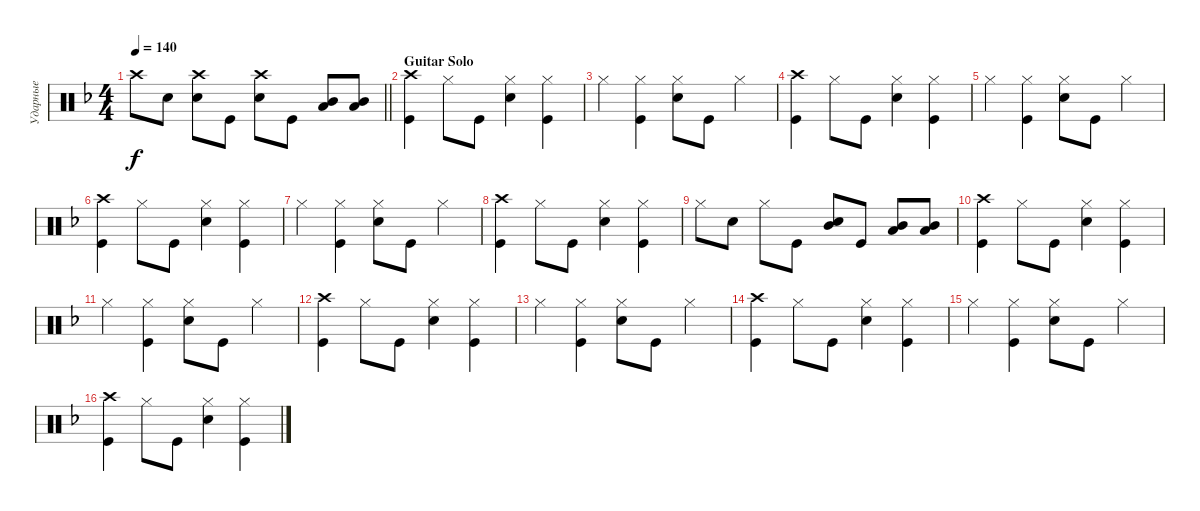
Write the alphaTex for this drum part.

\track ("Ударные" "Ударные") {instrument percussion}
\staff {score}
\articulation defaults
\ts (4 4)
\tempo 140
\clef neutral
\barLineRight lightlight
\ks dminor "Crash high (hit)".8{dy f} "Snare (hit) 2".8{bd 60}
("Crash high (hit)" "Snare (hit) 2").8 "Kick (hit)".8 ("Snare (hit) 2" "Crash high (hit)").8 "Kick (hit)".8 ("Mid Tom (hit)" "Low Tom (hit)").8{bd 60} ("Low Tom (hit)" "Mid Tom (hit)").8{bd 60} |
\section ("" "Guitar Solo")
("Kick (hit)" "Crash high (hit)").4 "Hi-Hat (closed)".8 "Kick (hit)".8 ("Snare (hit) 2" "Hi-Hat (closed)").4 ("Kick (hit)" "Hi-Hat (closed)").4 |
"Hi-Hat (closed)".4 ("Kick (hit)" "Hi-Hat (closed)").4 ("Snare (hit) 2" "Hi-Hat (closed)").8 "Kick (hit)".8 "Hi-Hat (closed)".4 |
("Kick (hit)" "Crash high (hit)").4 "Hi-Hat (closed)".8 "Kick (hit)".8 ("Snare (hit) 2" "Hi-Hat (closed)").4 ("Kick (hit)" "Hi-Hat (closed)").4 |
"Hi-Hat (closed)".4 ("Kick (hit)" "Hi-Hat (closed)").4 ("Snare (hit) 2" "Hi-Hat (closed)").8 "Kick (hit)".8 "Hi-Hat (closed)".4 |
("Kick (hit)" "Crash high (hit)").4 "Hi-Hat (closed)".8 "Kick (hit)".8 ("Snare (hit) 2" "Hi-Hat (closed)").4 ("Kick (hit)" "Hi-Hat (closed)").4 |
"Hi-Hat (closed)".4 ("Kick (hit)" "Hi-Hat (closed)").4 ("Snare (hit) 2" "Hi-Hat (closed)").8 "Kick (hit)".8 "Hi-Hat (closed)".4 |
("Kick (hit)" "Crash high (hit)").4 "Hi-Hat (closed)".8 "Kick (hit)".8 ("Snare (hit) 2" "Hi-Hat (closed)").4 ("Kick (hit)" "Hi-Hat (closed)").4 |
"Hi-Hat (closed)".8 "Snare (hit) 2".8 "Hi-Hat (closed)".8 "Kick (hit)".8 ("Snare (hit) 2" "Mid Tom (hit)").8{bd 60} "Kick (hit)".8 ("Mid Tom (hit)" "Low Tom (hit)").8{bd 60} ("Mid Tom (hit)" "Low Tom (hit)").8{bd 60} |
("Kick (hit)" "Crash high (hit)").4 "Hi-Hat (closed)".8 "Kick (hit)".8 ("Snare (hit) 2" "Hi-Hat (closed)").4 ("Kick (hit)" "Hi-Hat (closed)").4 |
"Hi-Hat (closed)".4 ("Kick (hit)" "Hi-Hat (closed)").4 ("Snare (hit) 2" "Hi-Hat (closed)").8 "Kick (hit)".8 "Hi-Hat (closed)".4 |
("Kick (hit)" "Crash high (hit)").4 "Hi-Hat (closed)".8 "Kick (hit)".8 ("Snare (hit) 2" "Hi-Hat (closed)").4 ("Kick (hit)" "Hi-Hat (closed)").4 |
"Hi-Hat (closed)".4 ("Kick (hit)" "Hi-Hat (closed)").4 ("Snare (hit) 2" "Hi-Hat (closed)").8 "Kick (hit)".8 "Hi-Hat (closed)".4 |
("Kick (hit)" "Crash high (hit)").4 "Hi-Hat (closed)".8 "Kick (hit)".8 ("Snare (hit) 2" "Hi-Hat (closed)").4 ("Kick (hit)" "Hi-Hat (closed)").4 |
"Hi-Hat (closed)".4 ("Kick (hit)" "Hi-Hat (closed)").4 ("Snare (hit) 2" "Hi-Hat (closed)").8 "Kick (hit)".8 "Hi-Hat (closed)".4 |
("Kick (hit)" "Crash high (hit)").4 "Hi-Hat (closed)".8 "Kick (hit)".8 ("Snare (hit) 2" "Hi-Hat (closed)").4 ("Kick (hit)" "Hi-Hat (closed)").4
